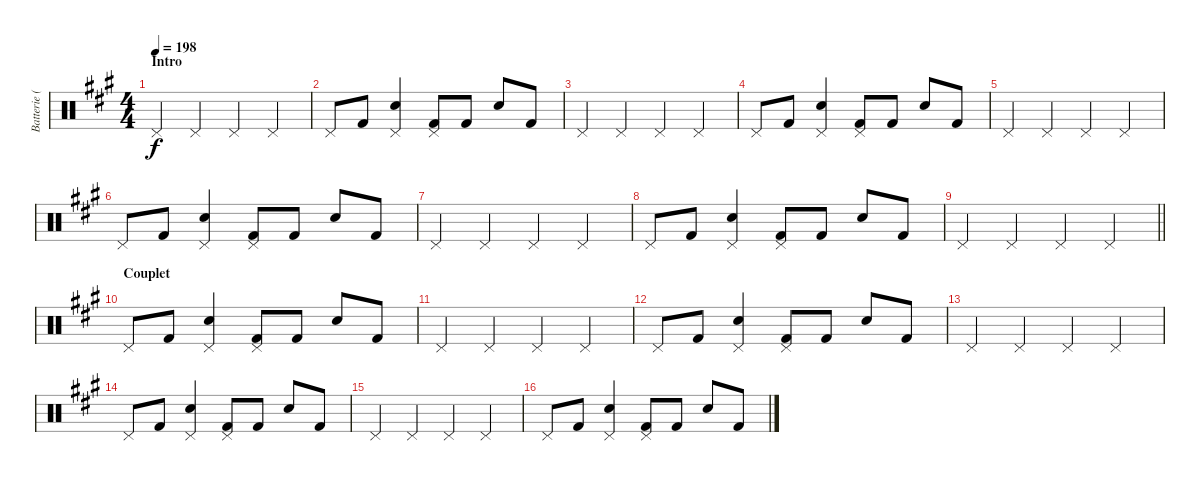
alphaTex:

\track ("Batterie (Phil Roud)" "Batterie (") {instrument percussion}
\staff {score}
\articulation defaults
\ts (4 4)
\section ("" "Intro")
\tempo 198
\clef neutral
\ks a "Pedal Hi-Hat (hit)".4{dy f} "Pedal Hi-Hat (hit)".4 "Pedal Hi-Hat (hit)".4 "Pedal Hi-Hat (hit)".4
|
"Pedal Hi-Hat (hit)".8 "Kick (hit) 2".8 ("Snare (hit) 2" "Pedal Hi-Hat (hit)").4 ("Kick (hit) 2" "Pedal Hi-Hat (hit)").8 "Kick (hit) 2".8 "Snare (hit) 2".8 "Kick (hit) 2".8 |
"Pedal Hi-Hat (hit)".4 "Pedal Hi-Hat (hit)".4 "Pedal Hi-Hat (hit)".4 "Pedal Hi-Hat (hit)".4 |
"Pedal Hi-Hat (hit)".8 "Kick (hit) 2".8 ("Snare (hit) 2" "Pedal Hi-Hat (hit)").4 ("Kick (hit) 2" "Pedal Hi-Hat (hit)").8 "Kick (hit) 2".8 "Snare (hit) 2".8 "Kick (hit) 2".8 |
"Pedal Hi-Hat (hit)".4 "Pedal Hi-Hat (hit)".4 "Pedal Hi-Hat (hit)".4 "Pedal Hi-Hat (hit)".4 |
"Pedal Hi-Hat (hit)".8 "Kick (hit) 2".8 ("Snare (hit) 2" "Pedal Hi-Hat (hit)").4 ("Kick (hit) 2" "Pedal Hi-Hat (hit)").8 "Kick (hit) 2".8 "Snare (hit) 2".8 "Kick (hit) 2".8 |
"Pedal Hi-Hat (hit)".4 "Pedal Hi-Hat (hit)".4 "Pedal Hi-Hat (hit)".4 "Pedal Hi-Hat (hit)".4 |
"Pedal Hi-Hat (hit)".8 "Kick (hit) 2".8 ("Snare (hit) 2" "Pedal Hi-Hat (hit)").4 ("Kick (hit) 2" "Pedal Hi-Hat (hit)").8 "Kick (hit) 2".8 "Snare (hit) 2".8 "Kick (hit) 2".8 |
\barLineRight lightlight "Pedal Hi-Hat (hit)".4 "Pedal Hi-Hat (hit)".4 "Pedal Hi-Hat (hit)".4 "Pedal Hi-Hat (hit)".4
|
\section ("" "Couplet")
"Pedal Hi-Hat (hit)".8 "Kick (hit) 2".8 ("Snare (hit) 2" "Pedal Hi-Hat (hit)").4 ("Kick (hit) 2" "Pedal Hi-Hat (hit)").8 "Kick (hit) 2".8 "Snare (hit) 2".8 "Kick (hit) 2".8 |
"Pedal Hi-Hat (hit)".4 "Pedal Hi-Hat (hit)".4 "Pedal Hi-Hat (hit)".4 "Pedal Hi-Hat (hit)".4 |
"Pedal Hi-Hat (hit)".8 "Kick (hit) 2".8 ("Snare (hit) 2" "Pedal Hi-Hat (hit)").4 ("Kick (hit) 2" "Pedal Hi-Hat (hit)").8 "Kick (hit) 2".8 "Snare (hit) 2".8 "Kick (hit) 2".8 |
"Pedal Hi-Hat (hit)".4 "Pedal Hi-Hat (hit)".4 "Pedal Hi-Hat (hit)".4 "Pedal Hi-Hat (hit)".4 |
"Pedal Hi-Hat (hit)".8 "Kick (hit) 2".8 ("Snare (hit) 2" "Pedal Hi-Hat (hit)").4 ("Kick (hit) 2" "Pedal Hi-Hat (hit)").8 "Kick (hit) 2".8 "Snare (hit) 2".8 "Kick (hit) 2".8 |
"Pedal Hi-Hat (hit)".4 "Pedal Hi-Hat (hit)".4 "Pedal Hi-Hat (hit)".4 "Pedal Hi-Hat (hit)".4 |
"Pedal Hi-Hat (hit)".8 "Kick (hit) 2".8 ("Snare (hit) 2" "Pedal Hi-Hat (hit)").4 ("Kick (hit) 2" "Pedal Hi-Hat (hit)").8 "Kick (hit) 2".8 "Snare (hit) 2".8 "Kick (hit) 2".8
